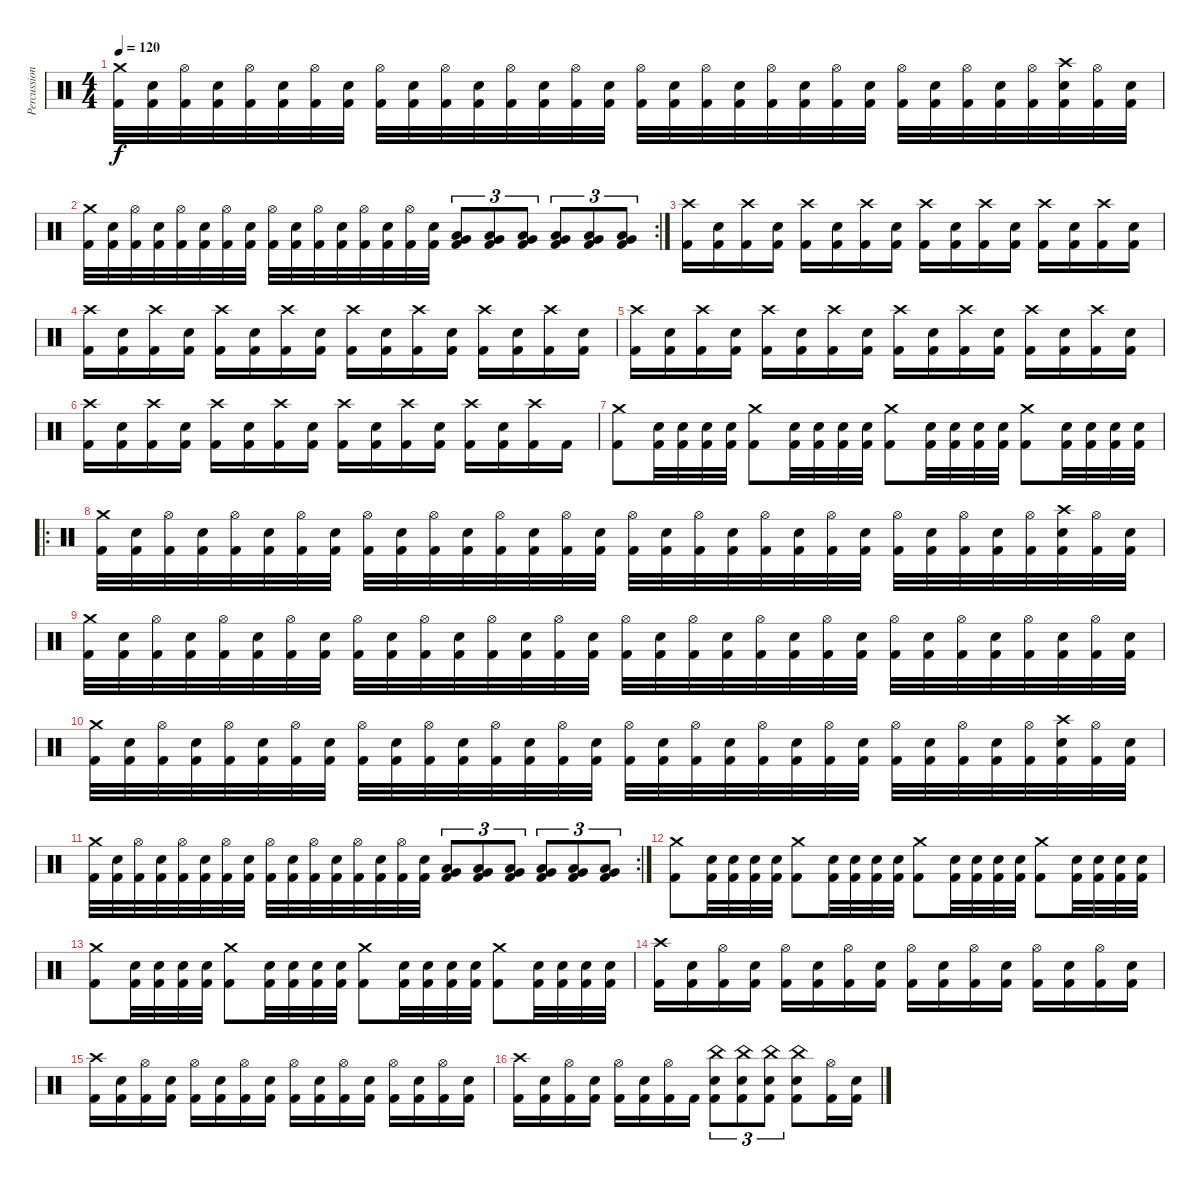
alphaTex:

\track ("Percussion" "Percussion") {instrument percussion}
\staff {score}
\articulation defaults
\ts (4 4)
\tempo 120
\clef neutral
\ks c
("Crash medium (hit)" "Kick (hit) 2").32{dy f} ("Snare (hit) 2" "Kick (hit) 2").32 ("Hi-Hat (open)" "Kick (hit) 2").32 ("Snare (hit) 2" "Kick (hit) 2").32 ("Hi-Hat (open)" "Kick (hit) 2").32 ("Snare (hit) 2" "Kick (hit) 2").32 ("Hi-Hat (open)" "Kick (hit) 2").32 ("Snare (hit) 2" "Kick (hit) 2").32 ("Hi-Hat (open)" "Kick (hit) 2").32 ("Snare (hit) 2" "Kick (hit) 2").32 ("Hi-Hat (open)" "Kick (hit) 2").32 ("Snare (hit) 2" "Kick (hit) 2").32 ("Hi-Hat (open)" "Kick (hit) 2").32 ("Snare (hit) 2" "Kick (hit) 2").32 ("Hi-Hat (open)" "Kick (hit) 2").32 ("Snare (hit) 2" "Kick (hit) 2").32 ("Hi-Hat (open)" "Kick (hit) 2").32 ("Snare (hit) 2" "Kick (hit) 2").32 ("Hi-Hat (open)" "Kick (hit) 2").32 ("Snare (hit) 2" "Kick (hit) 2").32 ("Hi-Hat (open)" "Kick (hit) 2").32 ("Snare (hit) 2" "Kick (hit) 2").32 ("Hi-Hat (open)" "Kick (hit) 2").32 ("Snare (hit) 2" "Kick (hit) 2").32 ("Hi-Hat (open)" "Kick (hit) 2").32 ("Snare (hit) 2" "Kick (hit) 2").32 ("Hi-Hat (open)" "Kick (hit) 2").32 ("Snare (hit) 2" "Kick (hit) 2").32 ("Hi-Hat (open)" "Kick (hit) 2").32 ("Crash high (hit)" "Snare (hit) 2" "Kick (hit) 2").32 ("Hi-Hat (open)" "Kick (hit) 2").32 ("Snare (hit) 2" "Kick (hit) 2").32 |
\rc 2
("Crash medium (hit)" "Kick (hit) 2").32 ("Snare (hit) 2" "Kick (hit) 2").32 ("Hi-Hat (open)" "Kick (hit) 2").32 ("Snare (hit) 2" "Kick (hit) 2").32 ("Hi-Hat (open)" "Kick (hit) 2").32 ("Snare (hit) 2" "Kick (hit) 2").32 ("Hi-Hat (open)" "Kick (hit) 2").32 ("Snare (hit) 2" "Kick (hit) 2").32 ("Hi-Hat (open)" "Kick (hit) 2").32 ("Snare (hit) 2" "Kick (hit) 2").32 ("Hi-Hat (open)" "Kick (hit) 2").32 ("Snare (hit) 2" "Kick (hit) 2").32 ("Hi-Hat (open)" "Kick (hit) 2").32 ("Snare (hit) 2" "Kick (hit) 2").32 ("Hi-Hat (open)" "Kick (hit) 2").32 ("Snare (hit) 2" "Kick (hit) 2").32 ("Low Floor Tom (hit)" "Very Low Tom (hit)" "Kick (hit) 2").8{tu (3 2)} ("Low Floor Tom (hit)" "Very Low Tom (hit)" "Kick (hit) 2").8{tu (3 2)} ("Low Floor Tom (hit)" "Very Low Tom (hit)" "Kick (hit) 2").8{tu (3 2)} ("Very Low Tom (hit)" "Low Tom (hit)" "Kick (hit) 2").8{tu (3 2)} ("Very Low Tom (hit)" "Low Tom (hit)" "Kick (hit) 2").8{tu (3 2)} ("Very Low Tom (hit)" "Low Tom (hit)" "Kick (hit) 2").8{tu (3 2)} |
("Crash high (hit)" "Kick (hit) 2").16 ("Snare (hit) 2" "Kick (hit) 2").16 ("Crash high (hit)" "Kick (hit) 2").16 ("Snare (hit) 2" "Kick (hit) 2").16 ("Crash high (hit)" "Kick (hit) 2").16 ("Snare (hit) 2" "Kick (hit) 2").16 ("Crash high (hit)" "Kick (hit) 2").16 ("Snare (hit) 2" "Kick (hit) 2").16 ("Crash high (hit)" "Kick (hit) 2").16 ("Snare (hit) 2" "Kick (hit) 2").16 ("Crash high (hit)" "Kick (hit) 2").16 ("Snare (hit) 2" "Kick (hit) 2").16 ("Crash high (hit)" "Kick (hit) 2").16 ("Snare (hit) 2" "Kick (hit) 2").16 ("Crash high (hit)" "Kick (hit) 2").16 ("Snare (hit) 2" "Kick (hit) 2").16 |
("Crash high (hit)" "Kick (hit) 2").16 ("Snare (hit) 2" "Kick (hit) 2").16 ("Crash high (hit)" "Kick (hit) 2").16 ("Snare (hit) 2" "Kick (hit) 2").16 ("Crash high (hit)" "Kick (hit) 2").16 ("Snare (hit) 2" "Kick (hit) 2").16 ("Crash high (hit)" "Kick (hit) 2").16 ("Snare (hit) 2" "Kick (hit) 2").16 ("Crash high (hit)" "Kick (hit) 2").16 ("Snare (hit) 2" "Kick (hit) 2").16 ("Crash high (hit)" "Kick (hit) 2").16 ("Snare (hit) 2" "Kick (hit) 2").16 ("Crash high (hit)" "Kick (hit) 2").16 ("Snare (hit) 2" "Kick (hit) 2").16 ("Crash high (hit)" "Kick (hit) 2").16 ("Snare (hit) 2" "Kick (hit) 2").16 |
("Crash high (hit)" "Kick (hit) 2").16 ("Snare (hit) 2" "Kick (hit) 2").16 ("Crash high (hit)" "Kick (hit) 2").16 ("Snare (hit) 2" "Kick (hit) 2").16 ("Crash high (hit)" "Kick (hit) 2").16 ("Snare (hit) 2" "Kick (hit) 2").16 ("Crash high (hit)" "Kick (hit) 2").16 ("Snare (hit) 2" "Kick (hit) 2").16 ("Crash high (hit)" "Kick (hit) 2").16 ("Snare (hit) 2" "Kick (hit) 2").16 ("Crash high (hit)" "Kick (hit) 2").16 ("Snare (hit) 2" "Kick (hit) 2").16 ("Crash high (hit)" "Kick (hit) 2").16 ("Snare (hit) 2" "Kick (hit) 2").16 ("Crash high (hit)" "Kick (hit) 2").16 ("Snare (hit) 2" "Kick (hit) 2").16 |
("Crash high (hit)" "Kick (hit) 2").16 ("Snare (hit) 2" "Kick (hit) 2").16 ("Crash high (hit)" "Kick (hit) 2").16 ("Snare (hit) 2" "Kick (hit) 2").16 ("Crash high (hit)" "Kick (hit) 2").16 ("Snare (hit) 2" "Kick (hit) 2").16 ("Crash high (hit)" "Kick (hit) 2").16 ("Snare (hit) 2" "Kick (hit) 2").16 ("Crash high (hit)" "Kick (hit) 2").16 ("Snare (hit) 2" "Kick (hit) 2").16 ("Crash high (hit)" "Kick (hit) 2").16 ("Snare (hit) 2" "Kick (hit) 2").16 ("Crash high (hit)" "Kick (hit) 2").16 ("Snare (hit) 2" "Kick (hit) 2").16 ("Crash high (hit)" "Kick (hit) 2").16 "Kick (hit) 2".16 |
("Crash medium (hit)" "Kick (hit) 2").8 ("Snare (hit) 2" "Kick (hit) 2").32 ("Snare (hit) 2" "Kick (hit) 2").32 ("Snare (hit) 2" "Kick (hit) 2").32 ("Snare (hit) 2" "Kick (hit) 2").32 ("Crash medium (hit)" "Kick (hit) 2").8 ("Snare (hit) 2" "Kick (hit) 2").32 ("Snare (hit) 2" "Kick (hit) 2").32 ("Snare (hit) 2" "Kick (hit) 2").32 ("Snare (hit) 2" "Kick (hit) 2").32 ("Crash medium (hit)" "Kick (hit) 2").8 ("Snare (hit) 2" "Kick (hit) 2").32 ("Snare (hit) 2" "Kick (hit) 2").32 ("Snare (hit) 2" "Kick (hit) 2").32 ("Snare (hit) 2" "Kick (hit) 2").32 ("Crash medium (hit)" "Kick (hit) 2").8 ("Snare (hit) 2" "Kick (hit) 2").32 ("Snare (hit) 2" "Kick (hit) 2").32 ("Snare (hit) 2" "Kick (hit) 2").32 ("Snare (hit) 2" "Kick (hit) 2").32 |
\ro
("Crash medium (hit)" "Kick (hit) 2").32 ("Snare (hit) 2" "Kick (hit) 2").32 ("Hi-Hat (open)" "Kick (hit) 2").32 ("Snare (hit) 2" "Kick (hit) 2").32 ("Hi-Hat (open)" "Kick (hit) 2").32 ("Snare (hit) 2" "Kick (hit) 2").32 ("Hi-Hat (open)" "Kick (hit) 2").32 ("Snare (hit) 2" "Kick (hit) 2").32 ("Hi-Hat (open)" "Kick (hit) 2").32 ("Snare (hit) 2" "Kick (hit) 2").32 ("Hi-Hat (open)" "Kick (hit) 2").32 ("Snare (hit) 2" "Kick (hit) 2").32 ("Hi-Hat (open)" "Kick (hit) 2").32 ("Snare (hit) 2" "Kick (hit) 2").32 ("Hi-Hat (open)" "Kick (hit) 2").32 ("Snare (hit) 2" "Kick (hit) 2").32 ("Hi-Hat (open)" "Kick (hit) 2").32 ("Snare (hit) 2" "Kick (hit) 2").32 ("Hi-Hat (open)" "Kick (hit) 2").32 ("Snare (hit) 2" "Kick (hit) 2").32 ("Hi-Hat (open)" "Kick (hit) 2").32 ("Snare (hit) 2" "Kick (hit) 2").32 ("Hi-Hat (open)" "Kick (hit) 2").32 ("Snare (hit) 2" "Kick (hit) 2").32 ("Hi-Hat (open)" "Kick (hit) 2").32 ("Snare (hit) 2" "Kick (hit) 2").32 ("Hi-Hat (open)" "Kick (hit) 2").32 ("Snare (hit) 2" "Kick (hit) 2").32 ("Hi-Hat (open)" "Kick (hit) 2").32 ("Crash high (hit)" "Snare (hit) 2" "Kick (hit) 2").32 ("Hi-Hat (open)" "Kick (hit) 2").32 ("Snare (hit) 2" "Kick (hit) 2").32 |
("Crash medium (hit)" "Kick (hit) 2").32 ("Snare (hit) 2" "Kick (hit) 2").32 ("Hi-Hat (open)" "Kick (hit) 2").32 ("Snare (hit) 2" "Kick (hit) 2").32 ("Hi-Hat (open)" "Kick (hit) 2").32 ("Snare (hit) 2" "Kick (hit) 2").32 ("Hi-Hat (open)" "Kick (hit) 2").32 ("Snare (hit) 2" "Kick (hit) 2").32 ("Hi-Hat (open)" "Kick (hit) 2").32 ("Snare (hit) 2" "Kick (hit) 2").32 ("Hi-Hat (open)" "Kick (hit) 2").32 ("Snare (hit) 2" "Kick (hit) 2").32 ("Hi-Hat (open)" "Kick (hit) 2").32 ("Snare (hit) 2" "Kick (hit) 2").32 ("Hi-Hat (open)" "Kick (hit) 2").32 ("Snare (hit) 2" "Kick (hit) 2").32 ("Hi-Hat (open)" "Kick (hit) 2").32 ("Snare (hit) 2" "Kick (hit) 2").32 ("Hi-Hat (open)" "Kick (hit) 2").32 ("Snare (hit) 2" "Kick (hit) 2").32 ("Hi-Hat (open)" "Kick (hit) 2").32 ("Snare (hit) 2" "Kick (hit) 2").32 ("Hi-Hat (open)" "Kick (hit) 2").32 ("Snare (hit) 2" "Kick (hit) 2").32 ("Hi-Hat (open)" "Kick (hit) 2").32 ("Snare (hit) 2" "Kick (hit) 2").32 ("Hi-Hat (open)" "Kick (hit) 2").32 ("Snare (hit) 2" "Kick (hit) 2").32 ("Hi-Hat (open)" "Kick (hit) 2").32 ("Snare (hit) 2" "Kick (hit) 2").32 ("Hi-Hat (open)" "Kick (hit) 2").32 ("Snare (hit) 2" "Kick (hit) 2").32 |
("Crash medium (hit)" "Kick (hit) 2").32 ("Snare (hit) 2" "Kick (hit) 2").32 ("Hi-Hat (open)" "Kick (hit) 2").32 ("Snare (hit) 2" "Kick (hit) 2").32 ("Hi-Hat (open)" "Kick (hit) 2").32 ("Snare (hit) 2" "Kick (hit) 2").32 ("Hi-Hat (open)" "Kick (hit) 2").32 ("Snare (hit) 2" "Kick (hit) 2").32 ("Hi-Hat (open)" "Kick (hit) 2").32 ("Snare (hit) 2" "Kick (hit) 2").32 ("Hi-Hat (open)" "Kick (hit) 2").32 ("Snare (hit) 2" "Kick (hit) 2").32 ("Hi-Hat (open)" "Kick (hit) 2").32 ("Snare (hit) 2" "Kick (hit) 2").32 ("Hi-Hat (open)" "Kick (hit) 2").32 ("Snare (hit) 2" "Kick (hit) 2").32 ("Hi-Hat (open)" "Kick (hit) 2").32 ("Snare (hit) 2" "Kick (hit) 2").32 ("Hi-Hat (open)" "Kick (hit) 2").32 ("Snare (hit) 2" "Kick (hit) 2").32 ("Hi-Hat (open)" "Kick (hit) 2").32 ("Snare (hit) 2" "Kick (hit) 2").32 ("Hi-Hat (open)" "Kick (hit) 2").32 ("Snare (hit) 2" "Kick (hit) 2").32 ("Hi-Hat (open)" "Kick (hit) 2").32 ("Snare (hit) 2" "Kick (hit) 2").32 ("Hi-Hat (open)" "Kick (hit) 2").32 ("Snare (hit) 2" "Kick (hit) 2").32 ("Hi-Hat (open)" "Kick (hit) 2").32 ("Crash high (hit)" "Snare (hit) 2" "Kick (hit) 2").32 ("Hi-Hat (open)" "Kick (hit) 2").32 ("Snare (hit) 2" "Kick (hit) 2").32 |
\rc 2
("Crash medium (hit)" "Kick (hit) 2").32 ("Snare (hit) 2" "Kick (hit) 2").32 ("Hi-Hat (open)" "Kick (hit) 2").32 ("Snare (hit) 2" "Kick (hit) 2").32 ("Hi-Hat (open)" "Kick (hit) 2").32 ("Snare (hit) 2" "Kick (hit) 2").32 ("Hi-Hat (open)" "Kick (hit) 2").32 ("Snare (hit) 2" "Kick (hit) 2").32 ("Hi-Hat (open)" "Kick (hit) 2").32 ("Snare (hit) 2" "Kick (hit) 2").32 ("Hi-Hat (open)" "Kick (hit) 2").32 ("Snare (hit) 2" "Kick (hit) 2").32 ("Hi-Hat (open)" "Kick (hit) 2").32 ("Snare (hit) 2" "Kick (hit) 2").32 ("Hi-Hat (open)" "Kick (hit) 2").32 ("Snare (hit) 2" "Kick (hit) 2").32 ("Low Floor Tom (hit)" "Very Low Tom (hit)" "Kick (hit) 2").8{tu (3 2)} ("Low Floor Tom (hit)" "Very Low Tom (hit)" "Kick (hit) 2").8{tu (3 2)} ("Low Floor Tom (hit)" "Very Low Tom (hit)" "Kick (hit) 2").8{tu (3 2)} ("Very Low Tom (hit)" "Low Tom (hit)" "Kick (hit) 2").8{tu (3 2)} ("Very Low Tom (hit)" "Low Tom (hit)" "Kick (hit) 2").8{tu (3 2)} ("Very Low Tom (hit)" "Low Tom (hit)" "Kick (hit) 2").8{tu (3 2)} |
("Crash medium (hit)" "Kick (hit) 2").8 ("Snare (hit) 2" "Kick (hit) 2").32 ("Snare (hit) 2" "Kick (hit) 2").32 ("Snare (hit) 2" "Kick (hit) 2").32 ("Snare (hit) 2" "Kick (hit) 2").32 ("Crash medium (hit)" "Kick (hit) 2").8 ("Snare (hit) 2" "Kick (hit) 2").32 ("Snare (hit) 2" "Kick (hit) 2").32 ("Snare (hit) 2" "Kick (hit) 2").32 ("Snare (hit) 2" "Kick (hit) 2").32 ("Crash medium (hit)" "Kick (hit) 2").8 ("Snare (hit) 2" "Kick (hit) 2").32 ("Snare (hit) 2" "Kick (hit) 2").32 ("Snare (hit) 2" "Kick (hit) 2").32 ("Snare (hit) 2" "Kick (hit) 2").32 ("Crash medium (hit)" "Kick (hit) 2").8 ("Snare (hit) 2" "Kick (hit) 2").32 ("Snare (hit) 2" "Kick (hit) 2").32 ("Snare (hit) 2" "Kick (hit) 2").32 ("Snare (hit) 2" "Kick (hit) 2").32 |
("Crash medium (hit)" "Kick (hit) 2").8 ("Snare (hit) 2" "Kick (hit) 2").32 ("Snare (hit) 2" "Kick (hit) 2").32 ("Snare (hit) 2" "Kick (hit) 2").32 ("Snare (hit) 2" "Kick (hit) 2").32 ("Crash medium (hit)" "Kick (hit) 2").8 ("Snare (hit) 2" "Kick (hit) 2").32 ("Snare (hit) 2" "Kick (hit) 2").32 ("Snare (hit) 2" "Kick (hit) 2").32 ("Snare (hit) 2" "Kick (hit) 2").32 ("Crash medium (hit)" "Kick (hit) 2").8 ("Snare (hit) 2" "Kick (hit) 2").32 ("Snare (hit) 2" "Kick (hit) 2").32 ("Snare (hit) 2" "Kick (hit) 2").32 ("Snare (hit) 2" "Kick (hit) 2").32 ("Crash medium (hit)" "Kick (hit) 2").8 ("Snare (hit) 2" "Kick (hit) 2").32 ("Snare (hit) 2" "Kick (hit) 2").32 ("Snare (hit) 2" "Kick (hit) 2").32 ("Snare (hit) 2" "Kick (hit) 2").32 |
("Crash high (hit)" "Kick (hit) 2").16 ("Snare (hit) 2" "Kick (hit) 2").16 ("Hi-Hat (open)" "Kick (hit) 2").16 ("Snare (hit) 2" "Kick (hit) 2").16 ("Hi-Hat (open)" "Kick (hit) 2").16 ("Snare (hit) 2" "Kick (hit) 2").16 ("Hi-Hat (open)" "Kick (hit) 2").16 ("Snare (hit) 2" "Kick (hit) 2").16 ("Hi-Hat (open)" "Kick (hit) 2").16 ("Snare (hit) 2" "Kick (hit) 2").16 ("Hi-Hat (open)" "Kick (hit) 2").16 ("Snare (hit) 2" "Kick (hit) 2").16 ("Hi-Hat (open)" "Kick (hit) 2").16 ("Snare (hit) 2" "Kick (hit) 2").16 ("Hi-Hat (open)" "Kick (hit) 2").16 ("Snare (hit) 2" "Kick (hit) 2").16 |
("Crash high (hit)" "Kick (hit) 2").16 ("Snare (hit) 2" "Kick (hit) 2").16 ("Hi-Hat (open)" "Kick (hit) 2").16 ("Snare (hit) 2" "Kick (hit) 2").16 ("Hi-Hat (open)" "Kick (hit) 2").16 ("Snare (hit) 2" "Kick (hit) 2").16 ("Hi-Hat (open)" "Kick (hit) 2").16 ("Snare (hit) 2" "Kick (hit) 2").16 ("Hi-Hat (open)" "Kick (hit) 2").16 ("Snare (hit) 2" "Kick (hit) 2").16 ("Hi-Hat (open)" "Kick (hit) 2").16 ("Snare (hit) 2" "Kick (hit) 2").16 ("Hi-Hat (open)" "Kick (hit) 2").16 ("Snare (hit) 2" "Kick (hit) 2").16 ("Hi-Hat (open)" "Kick (hit) 2").16 ("Snare (hit) 2" "Kick (hit) 2").16 |
("Crash high (hit)" "Kick (hit) 2").16 ("Snare (hit) 2" "Kick (hit) 2").16 ("Hi-Hat (open)" "Kick (hit) 2").16 ("Snare (hit) 2" "Kick (hit) 2").16 ("Hi-Hat (open)" "Kick (hit) 2").16 ("Snare (hit) 2" "Kick (hit) 2").16 ("Hi-Hat (open)" "Kick (hit) 2").16 "Kick (hit) 2".16 ("China (hit)" "Snare (hit) 2" "Kick (hit) 2").8{tu (3 2)} ("China (hit)" "Snare (hit) 2" "Kick (hit) 2").8{tu (3 2)} ("China (hit)" "Snare (hit) 2" "Kick (hit) 2").8{tu (3 2)} ("China (hit)" "Snare (hit) 2" "Kick (hit) 2").8 ("Hi-Hat (open)" "Kick (hit) 2").16 ("Snare (hit) 2" "Kick (hit) 2").16
